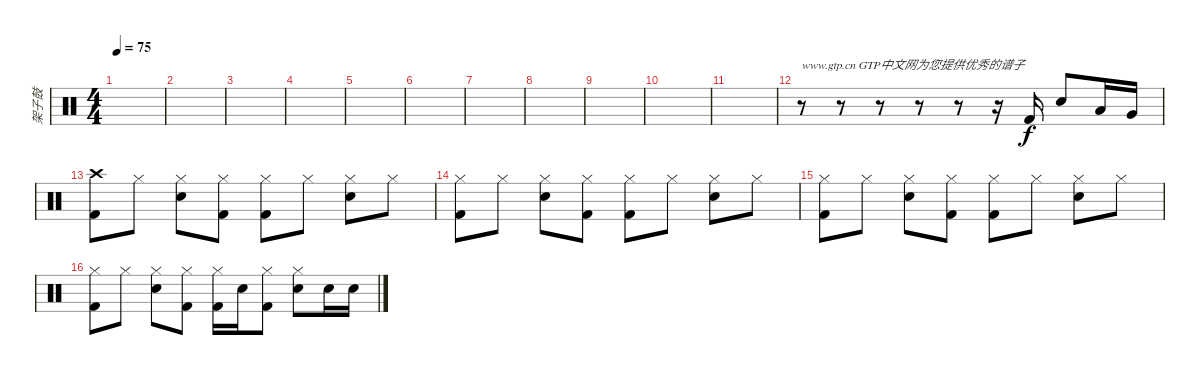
\track ("架子鼓" "架子鼓") {instrument percussion}
\staff {score}
\articulation defaults
\ts (4 4)
\tempo 75
\clef neutral
\ks c
|
|
|
|
|
|
|
|
|
|
|
r.8{txt "www.gtp.cn GTP中文网为您提供优秀的谱子"} r.8 r.8 r.8 r.8 r.16 "Kick (hit) 2".16 "Electric Snare (hit)".8 "Low Tom (hit)".16 "Very Low Tom (hit)".16 |
("Crash high (hit)" "Kick (hit) 2").8 "Hi-Hat (closed)".8 ("Hi-Hat (closed)" "Electric Snare (hit)").8 ("Hi-Hat (closed)" "Kick (hit) 2").8 ("Hi-Hat (closed)" "Kick (hit) 2").8 "Hi-Hat (closed)".8 ("Hi-Hat (closed)" "Electric Snare (hit)").8 "Hi-Hat (closed)".8 |
("Hi-Hat (closed)" "Kick (hit) 2").8 "Hi-Hat (closed)".8 ("Hi-Hat (closed)" "Electric Snare (hit)").8 ("Hi-Hat (closed)" "Kick (hit) 2").8 ("Hi-Hat (closed)" "Kick (hit) 2").8 "Hi-Hat (closed)".8 ("Hi-Hat (closed)" "Electric Snare (hit)").8 "Hi-Hat (closed)".8 |
("Hi-Hat (closed)" "Kick (hit) 2").8 "Hi-Hat (closed)".8 ("Hi-Hat (closed)" "Electric Snare (hit)").8 ("Hi-Hat (closed)" "Kick (hit) 2").8 ("Hi-Hat (closed)" "Kick (hit) 2").8 "Hi-Hat (closed)".8 ("Hi-Hat (closed)" "Electric Snare (hit)").8 "Hi-Hat (closed)".8 |
("Hi-Hat (closed)" "Kick (hit) 2").8 "Hi-Hat (closed)".8 ("Hi-Hat (closed)" "Electric Snare (hit)").8 ("Hi-Hat (closed)" "Kick (hit) 2").8 ("Hi-Hat (closed)" "Kick (hit) 2").16 "Electric Snare (hit)".16 ("Hi-Hat (closed)" "Kick (hit) 2").8 ("Hi-Hat (closed)" "Electric Snare (hit)").8 "Electric Snare (hit)".16 "Electric Snare (hit)".16
